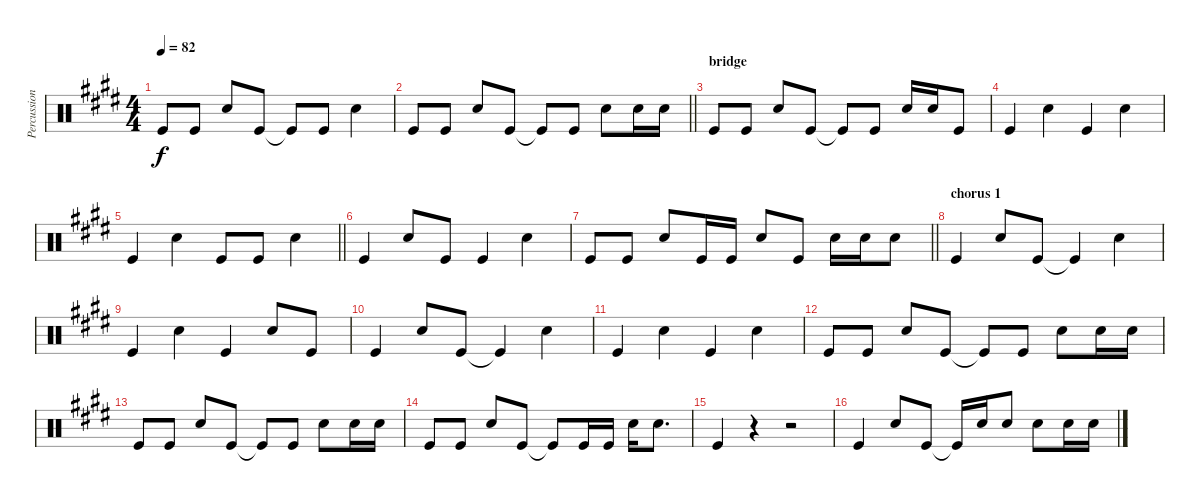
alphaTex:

\track ("Percussion" "Percussion") {instrument percussion}
\staff {score}
\articulation defaults
\ts (4 4)
\tempo 82
\clef neutral
\ks e "Kick (hit)".8{dy f} "Kick (hit)".8 "Snare (hit) 2".8 "Kick (hit)".8 "Kick (hit)"{t}.8 "Kick (hit)".8 "Snare (hit) 2".4
|
\barLineRight lightlight "Kick (hit)".8 "Kick (hit)".8 "Snare (hit) 2".8 "Kick (hit)".8 "Kick (hit)"{t}.8 "Kick (hit)".8 "Snare (hit) 2".8 "Snare (hit) 2".16 "Snare (hit) 2".16
|
\section ("" "bridge")
"Kick (hit)".8 "Kick (hit)".8 "Snare (hit) 2".8 "Kick (hit)".8 "Kick (hit)"{t}.8 "Kick (hit)".8 "Snare (hit) 2".16 "Snare (hit) 2".16 "Kick (hit)".8 |
"Kick (hit)".4 "Snare (hit) 2".4 "Kick (hit)".4 "Snare (hit) 2".4 |
\barLineRight lightlight "Kick (hit)".4 "Snare (hit) 2".4 "Kick (hit)".8 "Kick (hit)".8 "Snare (hit) 2".4
|
"Kick (hit)".4 "Snare (hit) 2".8 "Kick (hit)".8 "Kick (hit)".4 "Snare (hit) 2".4 |
\barLineRight lightlight "Kick (hit)".8 "Kick (hit)".8 "Snare (hit) 2".8 "Kick (hit)".16 "Kick (hit)".16 "Snare (hit) 2".8 "Kick (hit)".8 "Snare (hit) 2".16 "Snare (hit) 2".16 "Snare (hit) 2".8
|
\section ("" "chorus 1")
"Kick (hit)".4 "Snare (hit) 2".8 "Kick (hit)".8 "Kick (hit)"{t}.4 "Snare (hit) 2".4 |
"Kick (hit)".4 "Snare (hit) 2".4 "Kick (hit)".4 "Snare (hit) 2".8 "Kick (hit)".8 |
"Kick (hit)".4 "Snare (hit) 2".8 "Kick (hit)".8 "Kick (hit)"{t}.4 "Snare (hit) 2".4 |
"Kick (hit)".4 "Snare (hit) 2".4 "Kick (hit)".4 "Snare (hit) 2".4 |
"Kick (hit)".8 "Kick (hit)".8 "Snare (hit) 2".8 "Kick (hit)".8 "Kick (hit)"{t}.8 "Kick (hit)".8 "Snare (hit) 2".8 "Snare (hit) 2".16 "Snare (hit) 2".16 |
"Kick (hit)".8 "Kick (hit)".8 "Snare (hit) 2".8 "Kick (hit)".8 "Kick (hit)"{t}.8 "Kick (hit)".8 "Snare (hit) 2".8 "Snare (hit) 2".16 "Snare (hit) 2".16 |
"Kick (hit)".8 "Kick (hit)".8 "Snare (hit) 2".8 "Kick (hit)".8 "Kick (hit)"{t}.8 "Kick (hit)".16 "Kick (hit)".16 "Snare (hit) 2".16 "Snare (hit) 2".8{d} |
"Kick (hit)".4 r.4 r.2 |
"Kick (hit)".4 "Snare (hit) 2".8 "Kick (hit)".8 "Kick (hit)"{t}.16 "Snare (hit) 2".16 "Snare (hit) 2".8 "Snare (hit) 2".8 "Snare (hit) 2".16 "Snare (hit) 2".16
